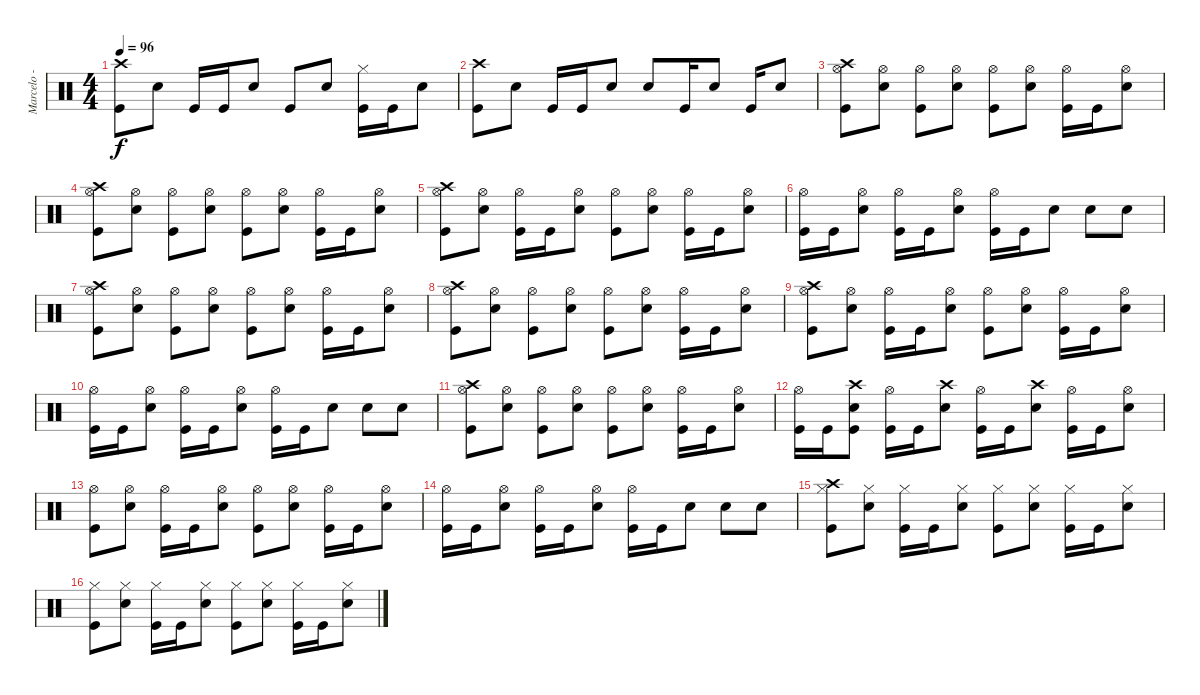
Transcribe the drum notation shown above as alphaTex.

\track ("Marcelo - Percusión" "Marcelo - ") {instrument percussion}
\staff {score}
\articulation defaults
\ts (4 4)
\tempo 96
\clef neutral
\ks c
("Crash high (hit)" "Kick (hit)").8{dy f} "Electric Snare (hit)".8 "Kick (hit)".16 "Kick (hit)".16 "Electric Snare (hit)".8 "Kick (hit)".8 "Electric Snare (hit)".8 ("Hi-Hat (closed)" "Kick (hit)").16 "Kick (hit)".16 "Electric Snare (hit)".8 |
("Crash high (hit)" "Kick (hit)").8 "Electric Snare (hit)".8 "Kick (hit)".16 "Kick (hit)".16 "Electric Snare (hit)".8 "Electric Snare (hit)".8 "Kick (hit)".16 "Electric Snare (hit)".8 "Kick (hit)".16 "Electric Snare (hit)".8 |
("Crash high (hit)" "Hi-Hat (open)" "Kick (hit)").8 ("Hi-Hat (open)" "Electric Snare (hit)").8 ("Hi-Hat (open)" "Kick (hit)").8 ("Hi-Hat (open)" "Electric Snare (hit)").8 ("Hi-Hat (open)" "Kick (hit)").8 ("Hi-Hat (open)" "Electric Snare (hit)").8 ("Hi-Hat (open)" "Kick (hit)").16 "Kick (hit)".16 ("Hi-Hat (open)" "Electric Snare (hit)").8 |
("Crash high (hit)" "Hi-Hat (open)" "Kick (hit)").8 ("Hi-Hat (open)" "Electric Snare (hit)").8 ("Hi-Hat (open)" "Kick (hit)").8 ("Hi-Hat (open)" "Electric Snare (hit)").8 ("Hi-Hat (open)" "Kick (hit)").8 ("Hi-Hat (open)" "Electric Snare (hit)").8 ("Hi-Hat (open)" "Kick (hit)").16 "Kick (hit)".16 ("Hi-Hat (open)" "Electric Snare (hit)").8 |
("Crash high (hit)" "Hi-Hat (open)" "Kick (hit)").8 ("Hi-Hat (open)" "Electric Snare (hit)").8 ("Hi-Hat (open)" "Kick (hit)").16 "Kick (hit)".16 ("Hi-Hat (open)" "Electric Snare (hit)").8 ("Hi-Hat (open)" "Kick (hit)").8 ("Hi-Hat (open)" "Electric Snare (hit)").8 ("Hi-Hat (open)" "Kick (hit)").16 "Kick (hit)".16 ("Hi-Hat (open)" "Electric Snare (hit)").8 |
("Hi-Hat (open)" "Kick (hit)").16 "Kick (hit)".16 ("Hi-Hat (open)" "Electric Snare (hit)").8 ("Hi-Hat (open)" "Kick (hit)").16 "Kick (hit)".16 ("Hi-Hat (open)" "Electric Snare (hit)").8 ("Hi-Hat (open)" "Kick (hit)").16 "Kick (hit)".16 "Electric Snare (hit)".8 "Electric Snare (hit)".8 "Electric Snare (hit)".8 |
("Crash high (hit)" "Hi-Hat (open)" "Kick (hit)").8 ("Hi-Hat (open)" "Electric Snare (hit)").8 ("Hi-Hat (open)" "Kick (hit)").8 ("Hi-Hat (open)" "Electric Snare (hit)").8 ("Hi-Hat (open)" "Kick (hit)").8 ("Hi-Hat (open)" "Electric Snare (hit)").8 ("Hi-Hat (open)" "Kick (hit)").16 "Kick (hit)".16 ("Hi-Hat (open)" "Electric Snare (hit)").8 |
("Crash high (hit)" "Hi-Hat (open)" "Kick (hit)").8 ("Hi-Hat (open)" "Electric Snare (hit)").8 ("Hi-Hat (open)" "Kick (hit)").8 ("Hi-Hat (open)" "Electric Snare (hit)").8 ("Hi-Hat (open)" "Kick (hit)").8 ("Hi-Hat (open)" "Electric Snare (hit)").8 ("Hi-Hat (open)" "Kick (hit)").16 "Kick (hit)".16 ("Hi-Hat (open)" "Electric Snare (hit)").8 |
("Crash high (hit)" "Hi-Hat (open)" "Kick (hit)").8 ("Hi-Hat (open)" "Electric Snare (hit)").8 ("Hi-Hat (open)" "Kick (hit)").16 "Kick (hit)".16 ("Hi-Hat (open)" "Electric Snare (hit)").8 ("Hi-Hat (open)" "Kick (hit)").8 ("Hi-Hat (open)" "Electric Snare (hit)").8 ("Hi-Hat (open)" "Kick (hit)").16 "Kick (hit)".16 ("Hi-Hat (open)" "Electric Snare (hit)").8 |
("Hi-Hat (open)" "Kick (hit)").16 "Kick (hit)".16 ("Hi-Hat (open)" "Electric Snare (hit)").8 ("Hi-Hat (open)" "Kick (hit)").16 "Kick (hit)".16 ("Hi-Hat (open)" "Electric Snare (hit)").8 ("Hi-Hat (open)" "Kick (hit)").16 "Kick (hit)".16 "Electric Snare (hit)".8 "Electric Snare (hit)".8 "Electric Snare (hit)".8 |
("Crash high (hit)" "Hi-Hat (open)" "Kick (hit)").8 ("Hi-Hat (open)" "Electric Snare (hit)").8 ("Hi-Hat (open)" "Kick (hit)").8 ("Hi-Hat (open)" "Electric Snare (hit)").8 ("Hi-Hat (open)" "Kick (hit)").8 ("Hi-Hat (open)" "Electric Snare (hit)").8 ("Hi-Hat (open)" "Kick (hit)").16 "Kick (hit)".16 ("Hi-Hat (open)" "Electric Snare (hit)").8 |
("Hi-Hat (open)" "Kick (hit)").16 "Kick (hit)".16 ("Crash high (hit)" "Electric Snare (hit)" "Kick (hit)").8 ("Hi-Hat (open)" "Kick (hit)").16 "Kick (hit)".16 ("Crash high (hit)" "Electric Snare (hit)").8 ("Hi-Hat (open)" "Kick (hit)").16 "Kick (hit)".16 ("Crash high (hit)" "Electric Snare (hit)").8 ("Hi-Hat (open)" "Kick (hit)").16 "Kick (hit)".16 ("Hi-Hat (open)" "Electric Snare (hit)").8 |
("Hi-Hat (open)" "Kick (hit)").8 ("Hi-Hat (open)" "Electric Snare (hit)").8 ("Hi-Hat (open)" "Kick (hit)").16 "Kick (hit)".16 ("Hi-Hat (open)" "Electric Snare (hit)").8 ("Hi-Hat (open)" "Kick (hit)").8 ("Hi-Hat (open)" "Electric Snare (hit)").8 ("Hi-Hat (open)" "Kick (hit)").16 "Kick (hit)".16 ("Hi-Hat (open)" "Electric Snare (hit)").8 |
("Hi-Hat (open)" "Kick (hit)").16 "Kick (hit)".16 ("Hi-Hat (open)" "Electric Snare (hit)").8 ("Hi-Hat (open)" "Kick (hit)").16 "Kick (hit)".16 ("Hi-Hat (open)" "Electric Snare (hit)").8 ("Hi-Hat (open)" "Kick (hit)").16 "Kick (hit)".16 "Electric Snare (hit)".8 "Electric Snare (hit)".8 "Electric Snare (hit)".8 |
("Crash high (hit)" "Hi-Hat (closed)" "Kick (hit)").8 ("Hi-Hat (closed)" "Electric Snare (hit)").8 ("Hi-Hat (closed)" "Kick (hit)").16 "Kick (hit)".16 ("Hi-Hat (closed)" "Electric Snare (hit)").8 ("Hi-Hat (closed)" "Kick (hit)").8 ("Hi-Hat (closed)" "Electric Snare (hit)").8 ("Hi-Hat (closed)" "Kick (hit)").16 "Kick (hit)".16 ("Hi-Hat (closed)" "Electric Snare (hit)").8 |
("Hi-Hat (closed)" "Kick (hit)").8 ("Hi-Hat (closed)" "Electric Snare (hit)").8 ("Hi-Hat (closed)" "Kick (hit)").16 "Kick (hit)".16 ("Hi-Hat (closed)" "Electric Snare (hit)").8 ("Hi-Hat (closed)" "Kick (hit)").8 ("Hi-Hat (closed)" "Electric Snare (hit)").8 ("Hi-Hat (closed)" "Kick (hit)").16 "Kick (hit)".16 ("Hi-Hat (closed)" "Electric Snare (hit)").8
